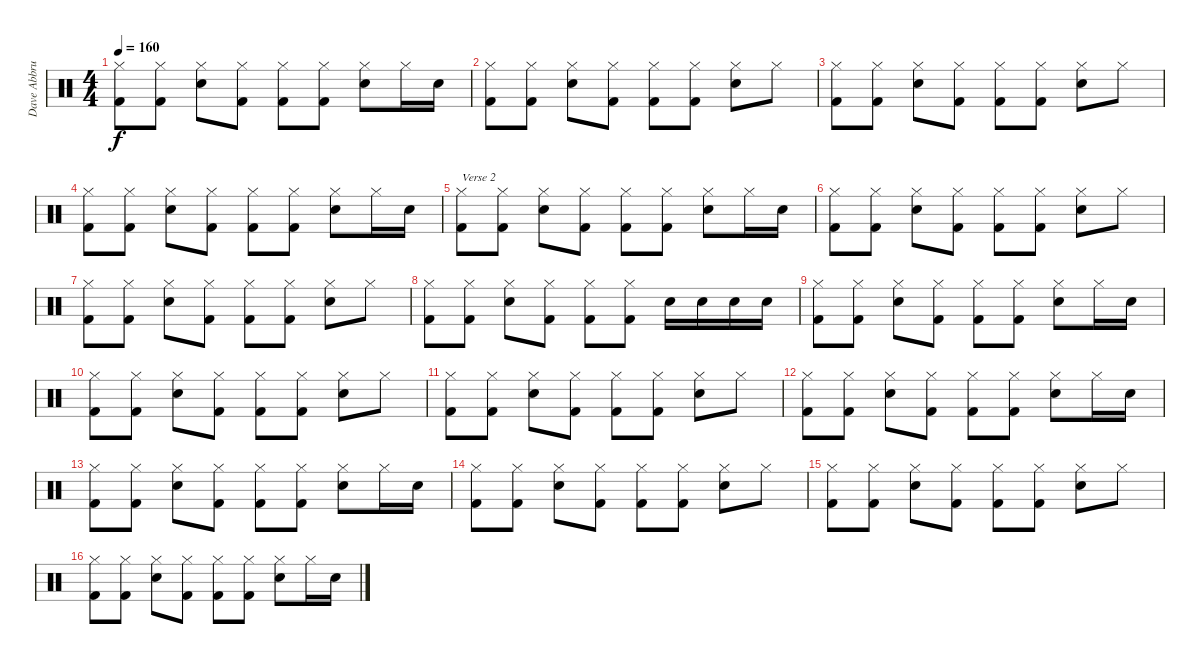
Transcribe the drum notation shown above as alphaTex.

\track ("Dave Abbruzzese" "Dave Abbru") {instrument percussion}
\staff {score}
\articulation defaults
\ts (4 4)
\tempo 160
\clef neutral
\ks c
("Hi-Hat (closed)" "Kick (hit) 2").8{dy f} ("Hi-Hat (closed)" "Kick (hit) 2").8 ("Hi-Hat (closed)" "Snare (hit) 2").8 ("Hi-Hat (closed)" "Kick (hit) 2").8 ("Hi-Hat (closed)" "Kick (hit) 2").8 ("Hi-Hat (closed)" "Kick (hit) 2").8 ("Hi-Hat (closed)" "Snare (hit) 2").8 "Hi-Hat (closed)".16 "Snare (hit) 2".16 |
("Hi-Hat (closed)" "Kick (hit) 2").8 ("Hi-Hat (closed)" "Kick (hit) 2").8 ("Hi-Hat (closed)" "Snare (hit) 2").8 ("Hi-Hat (closed)" "Kick (hit) 2").8 ("Hi-Hat (closed)" "Kick (hit) 2").8 ("Hi-Hat (closed)" "Kick (hit) 2").8 ("Hi-Hat (closed)" "Snare (hit) 2").8 "Hi-Hat (closed)".8 |
("Hi-Hat (closed)" "Kick (hit) 2").8 ("Hi-Hat (closed)" "Kick (hit) 2").8 ("Hi-Hat (closed)" "Snare (hit) 2").8 ("Hi-Hat (closed)" "Kick (hit) 2").8 ("Hi-Hat (closed)" "Kick (hit) 2").8 ("Hi-Hat (closed)" "Kick (hit) 2").8 ("Hi-Hat (closed)" "Snare (hit) 2").8 "Hi-Hat (closed)".8 |
("Hi-Hat (closed)" "Kick (hit) 2").8 ("Hi-Hat (closed)" "Kick (hit) 2").8 ("Hi-Hat (closed)" "Snare (hit) 2").8 ("Hi-Hat (closed)" "Kick (hit) 2").8 ("Hi-Hat (closed)" "Kick (hit) 2").8 ("Hi-Hat (closed)" "Kick (hit) 2").8 ("Hi-Hat (closed)" "Snare (hit) 2").8 "Hi-Hat (closed)".16 "Snare (hit) 2".16 |
("Hi-Hat (closed)" "Kick (hit) 2").8{txt "Verse 2"} ("Hi-Hat (closed)" "Kick (hit) 2").8 ("Hi-Hat (closed)" "Snare (hit) 2").8 ("Hi-Hat (closed)" "Kick (hit) 2").8 ("Hi-Hat (closed)" "Kick (hit) 2").8 ("Hi-Hat (closed)" "Kick (hit) 2").8 ("Hi-Hat (closed)" "Snare (hit) 2").8 "Hi-Hat (closed)".16 "Snare (hit) 2".16 |
("Hi-Hat (closed)" "Kick (hit) 2").8 ("Hi-Hat (closed)" "Kick (hit) 2").8 ("Hi-Hat (closed)" "Snare (hit) 2").8 ("Hi-Hat (closed)" "Kick (hit) 2").8 ("Hi-Hat (closed)" "Kick (hit) 2").8 ("Hi-Hat (closed)" "Kick (hit) 2").8 ("Hi-Hat (closed)" "Snare (hit) 2").8 "Hi-Hat (closed)".8 |
("Hi-Hat (closed)" "Kick (hit) 2").8 ("Hi-Hat (closed)" "Kick (hit) 2").8 ("Hi-Hat (closed)" "Snare (hit) 2").8 ("Hi-Hat (closed)" "Kick (hit) 2").8 ("Hi-Hat (closed)" "Kick (hit) 2").8 ("Hi-Hat (closed)" "Kick (hit) 2").8 ("Hi-Hat (closed)" "Snare (hit) 2").8 "Hi-Hat (closed)".8 |
("Hi-Hat (closed)" "Kick (hit) 2").8 ("Hi-Hat (closed)" "Kick (hit) 2").8 ("Hi-Hat (closed)" "Snare (hit) 2").8 ("Hi-Hat (closed)" "Kick (hit) 2").8 ("Hi-Hat (closed)" "Kick (hit) 2").8 ("Hi-Hat (closed)" "Kick (hit) 2").8 "Snare (hit) 2".16 "Snare (hit) 2".16 "Snare (hit) 2".16 "Snare (hit) 2".16 |
("Hi-Hat (closed)" "Kick (hit) 2").8 ("Hi-Hat (closed)" "Kick (hit) 2").8 ("Hi-Hat (closed)" "Snare (hit) 2").8 ("Hi-Hat (closed)" "Kick (hit) 2").8 ("Hi-Hat (closed)" "Kick (hit) 2").8 ("Hi-Hat (closed)" "Kick (hit) 2").8 ("Hi-Hat (closed)" "Snare (hit) 2").8 "Hi-Hat (closed)".16 "Snare (hit) 2".16 |
("Hi-Hat (closed)" "Kick (hit) 2").8 ("Hi-Hat (closed)" "Kick (hit) 2").8 ("Hi-Hat (closed)" "Snare (hit) 2").8 ("Hi-Hat (closed)" "Kick (hit) 2").8 ("Hi-Hat (closed)" "Kick (hit) 2").8 ("Hi-Hat (closed)" "Kick (hit) 2").8 ("Hi-Hat (closed)" "Snare (hit) 2").8 "Hi-Hat (closed)".8 |
("Hi-Hat (closed)" "Kick (hit) 2").8 ("Hi-Hat (closed)" "Kick (hit) 2").8 ("Hi-Hat (closed)" "Snare (hit) 2").8 ("Hi-Hat (closed)" "Kick (hit) 2").8 ("Hi-Hat (closed)" "Kick (hit) 2").8 ("Hi-Hat (closed)" "Kick (hit) 2").8 ("Hi-Hat (closed)" "Snare (hit) 2").8 "Hi-Hat (closed)".8 |
("Hi-Hat (closed)" "Kick (hit) 2").8 ("Hi-Hat (closed)" "Kick (hit) 2").8 ("Hi-Hat (closed)" "Snare (hit) 2").8 ("Hi-Hat (closed)" "Kick (hit) 2").8 ("Hi-Hat (closed)" "Kick (hit) 2").8 ("Hi-Hat (closed)" "Kick (hit) 2").8 ("Hi-Hat (closed)" "Snare (hit) 2").8 "Hi-Hat (closed)".16 "Snare (hit) 2".16 |
("Hi-Hat (closed)" "Kick (hit) 2").8 ("Hi-Hat (closed)" "Kick (hit) 2").8 ("Hi-Hat (closed)" "Snare (hit) 2").8 ("Hi-Hat (closed)" "Kick (hit) 2").8 ("Hi-Hat (closed)" "Kick (hit) 2").8 ("Hi-Hat (closed)" "Kick (hit) 2").8 ("Hi-Hat (closed)" "Snare (hit) 2").8 "Hi-Hat (closed)".16 "Snare (hit) 2".16 |
("Hi-Hat (closed)" "Kick (hit) 2").8 ("Hi-Hat (closed)" "Kick (hit) 2").8 ("Hi-Hat (closed)" "Snare (hit) 2").8 ("Hi-Hat (closed)" "Kick (hit) 2").8 ("Hi-Hat (closed)" "Kick (hit) 2").8 ("Hi-Hat (closed)" "Kick (hit) 2").8 ("Hi-Hat (closed)" "Snare (hit) 2").8 "Hi-Hat (closed)".8 |
("Hi-Hat (closed)" "Kick (hit) 2").8 ("Hi-Hat (closed)" "Kick (hit) 2").8 ("Hi-Hat (closed)" "Snare (hit) 2").8 ("Hi-Hat (closed)" "Kick (hit) 2").8 ("Hi-Hat (closed)" "Kick (hit) 2").8 ("Hi-Hat (closed)" "Kick (hit) 2").8 ("Hi-Hat (closed)" "Snare (hit) 2").8 "Hi-Hat (closed)".8 |
("Hi-Hat (closed)" "Kick (hit) 2").8 ("Hi-Hat (closed)" "Kick (hit) 2").8 ("Hi-Hat (closed)" "Snare (hit) 2").8 ("Hi-Hat (closed)" "Kick (hit) 2").8 ("Hi-Hat (closed)" "Kick (hit) 2").8 ("Hi-Hat (closed)" "Kick (hit) 2").8 ("Hi-Hat (closed)" "Snare (hit) 2").8 "Hi-Hat (closed)".16 "Snare (hit) 2".16
